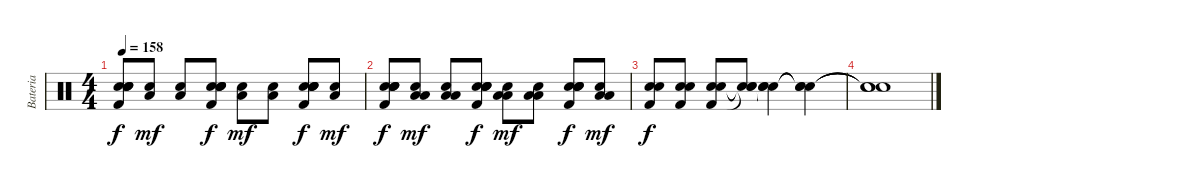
\track ("Bateria" "Bateria") {instrument percussion}
\staff {score}
\articulation defaults
\ts (4 4)
\tempo 158
\clef neutral
\ks c
("Electric Snare (hit)" "Snare (hit) 2" "Kick (hit) 2" "Electric Snare (hit)" "Snare (hit) 2").8{dy f} ("Low Tom (hit)" "Snare (hit) 2").8{dy mf} ("Low Tom (hit)" "Snare (hit) 2").8 ("Electric Snare (hit)" "Snare (hit) 2" "Kick (hit) 2" "Electric Snare (hit)" "Snare (hit) 2").8{dy f} ("Low Tom (hit)" "Snare (hit) 2").8{dy mf} ("Low Tom (hit)" "Snare (hit) 2").8 ("Electric Snare (hit)" "Snare (hit) 2" "Kick (hit) 2" "Electric Snare (hit)" "Snare (hit) 2").8{dy f} ("Low Tom (hit)" "Snare (hit) 2").8{dy mf} |
("Electric Snare (hit)" "Snare (hit) 2" "Kick (hit) 2" "Electric Snare (hit)" "Snare (hit) 2").8{dy f} ("Low Tom (hit)" "Snare (hit) 2" "Low Tom (hit)").8{dy mf} ("Low Tom (hit)" "Snare (hit) 2" "Low Tom (hit)").8 ("Electric Snare (hit)" "Snare (hit) 2" "Kick (hit) 2" "Electric Snare (hit)" "Snare (hit) 2").8{dy f} ("Low Tom (hit)" "Snare (hit) 2" "Low Tom (hit)").8{dy mf} ("Low Tom (hit)" "Snare (hit) 2" "Low Tom (hit)").8 ("Electric Snare (hit)" "Snare (hit) 2" "Kick (hit) 2" "Electric Snare (hit)" "Snare (hit) 2").8{dy f} ("Low Tom (hit)" "Snare (hit) 2" "Low Tom (hit)").8{dy mf} |
("Electric Snare (hit)" "Kick (hit) 2" "Snare (hit) 2").8{dy f} ("Electric Snare (hit)" "Kick (hit) 2" "Snare (hit) 2").8 ("Electric Snare (hit)" "Kick (hit) 2" "Snare (hit) 2").8 ("Snare (hit)"{t} "Snare (hit)"{t} "Snare (hit)"{t}).8 ("Snare (hit)"{t} "Snare (hit)"{t} "Snare (hit)"{t}).4 ("Snare (hit)"{t} "Snare (hit)"{t} "Snare (hit)"{t}).4 |
("Snare (hit)"{t} "Snare (hit)"{t} "Snare (hit)"{t}).1
